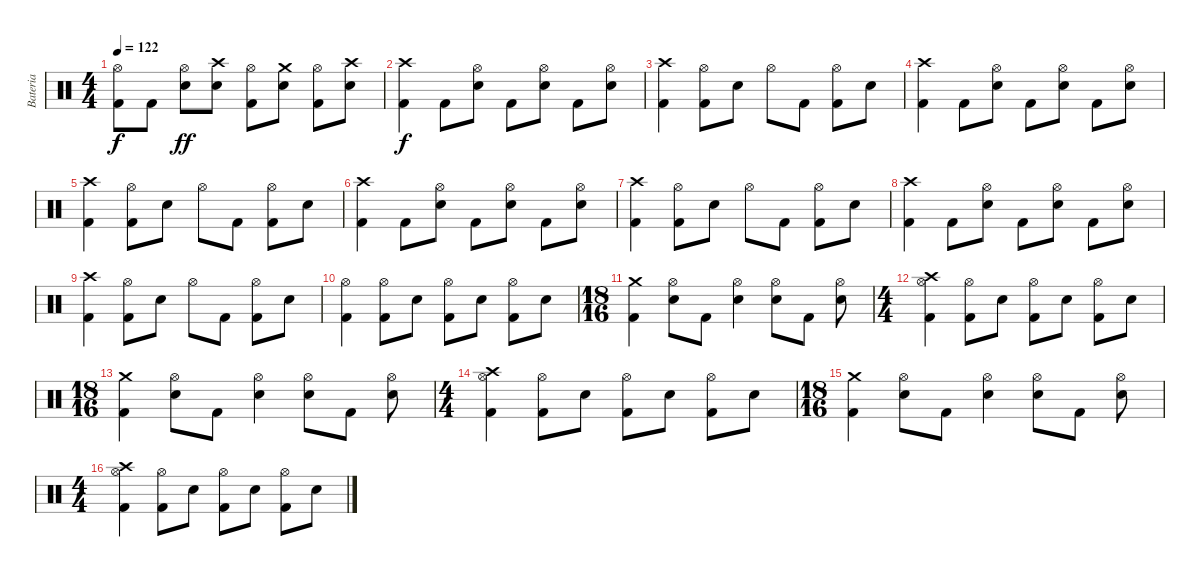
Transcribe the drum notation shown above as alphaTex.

\track ("Bateria" "Bateria") {instrument percussion}
\staff {score}
\articulation defaults
\ts (4 4)
\tempo 122
\clef neutral
\ks c
("Hi-Hat (open)" "Kick (hit) 2").8{dy f} "Kick (hit) 2".8 ("Hi-Hat (open)" "Electric Snare (hit)").8{dy ff} ("Crash high (hit)" "Electric Snare (hit)").8 ("Hi-Hat (open)" "Kick (hit) 2").8 ("Crash medium (hit)" "Electric Snare (hit)").8 ("Hi-Hat (open)" "Kick (hit) 2").8 ("Crash high (hit)" "Electric Snare (hit)").8 |
("Crash high (hit)" "Kick (hit) 2").4{dy f} "Kick (hit) 2".8 ("Hi-Hat (open)" "Electric Snare (hit)").8 "Kick (hit) 2".8 ("Hi-Hat (open)" "Electric Snare (hit)").8 "Kick (hit) 2".8 ("Hi-Hat (open)" "Electric Snare (hit)").8 |
("Crash high (hit)" "Kick (hit) 2").4 ("Hi-Hat (open)" "Kick (hit) 2").8 "Electric Snare (hit)".8 "Hi-Hat (open)".8 "Kick (hit) 2".8 ("Hi-Hat (open)" "Kick (hit) 2").8 "Electric Snare (hit)".8 |
("Crash high (hit)" "Kick (hit) 2").4 "Kick (hit) 2".8 ("Hi-Hat (open)" "Electric Snare (hit)").8 "Kick (hit) 2".8 ("Hi-Hat (open)" "Electric Snare (hit)").8 "Kick (hit) 2".8 ("Hi-Hat (open)" "Electric Snare (hit)").8 |
("Crash high (hit)" "Kick (hit) 2").4 ("Hi-Hat (open)" "Kick (hit) 2").8 "Electric Snare (hit)".8 "Hi-Hat (open)".8 "Kick (hit) 2".8 ("Hi-Hat (open)" "Kick (hit) 2").8 "Electric Snare (hit)".8 |
("Crash high (hit)" "Kick (hit) 2").4 "Kick (hit) 2".8 ("Hi-Hat (open)" "Electric Snare (hit)").8 "Kick (hit) 2".8 ("Hi-Hat (open)" "Electric Snare (hit)").8 "Kick (hit) 2".8 ("Hi-Hat (open)" "Electric Snare (hit)").8 |
("Crash high (hit)" "Kick (hit) 2").4 ("Hi-Hat (open)" "Kick (hit) 2").8 "Electric Snare (hit)".8 "Hi-Hat (open)".8 "Kick (hit) 2".8 ("Hi-Hat (open)" "Kick (hit) 2").8 "Electric Snare (hit)".8 |
("Crash high (hit)" "Kick (hit) 2").4 "Kick (hit) 2".8 ("Hi-Hat (open)" "Electric Snare (hit)").8 "Kick (hit) 2".8 ("Hi-Hat (open)" "Electric Snare (hit)").8 "Kick (hit) 2".8 ("Hi-Hat (open)" "Electric Snare (hit)").8 |
("Crash high (hit)" "Kick (hit) 2").4 ("Hi-Hat (open)" "Kick (hit) 2").8 "Electric Snare (hit)".8 "Hi-Hat (open)".8 "Kick (hit) 2".8 ("Hi-Hat (open)" "Kick (hit) 2").8 "Electric Snare (hit)".8 |
("Hi-Hat (open)" "Kick (hit) 2").4 ("Hi-Hat (open)" "Kick (hit) 2").8 "Electric Snare (hit)".8 ("Hi-Hat (open)" "Kick (hit) 2").8 "Electric Snare (hit)".8 ("Hi-Hat (open)" "Kick (hit) 2").8 "Electric Snare (hit)".8 |
\ts (18 16)
("Crash medium (hit)" "Kick (hit) 2").4 ("Hi-Hat (open)" "Electric Snare (hit)").8 "Kick (hit) 2".8 ("Hi-Hat (open)" "Electric Snare (hit)").4 ("Hi-Hat (open)" "Electric Snare (hit)").8 "Kick (hit) 2".8 ("Hi-Hat (open)" "Electric Snare (hit)").8 |
\ts (4 4)
("Crash high (hit)" "Hi-Hat (open)" "Kick (hit) 2").4 ("Hi-Hat (open)" "Kick (hit) 2").8 "Electric Snare (hit)".8 ("Hi-Hat (open)" "Kick (hit) 2").8 "Electric Snare (hit)".8 ("Hi-Hat (open)" "Kick (hit) 2").8 "Electric Snare (hit)".8 |
\ts (18 16)
("Crash medium (hit)" "Kick (hit) 2").4 ("Hi-Hat (open)" "Electric Snare (hit)").8 "Kick (hit) 2".8 ("Hi-Hat (open)" "Electric Snare (hit)").4 ("Hi-Hat (open)" "Electric Snare (hit)").8 "Kick (hit) 2".8 ("Hi-Hat (open)" "Electric Snare (hit)").8 |
\ts (4 4)
("Crash high (hit)" "Hi-Hat (open)" "Kick (hit) 2").4 ("Hi-Hat (open)" "Kick (hit) 2").8 "Electric Snare (hit)".8 ("Hi-Hat (open)" "Kick (hit) 2").8 "Electric Snare (hit)".8 ("Hi-Hat (open)" "Kick (hit) 2").8 "Electric Snare (hit)".8 |
\ts (18 16)
("Crash medium (hit)" "Kick (hit) 2").4 ("Hi-Hat (open)" "Electric Snare (hit)").8 "Kick (hit) 2".8 ("Hi-Hat (open)" "Electric Snare (hit)").4 ("Hi-Hat (open)" "Electric Snare (hit)").8 "Kick (hit) 2".8 ("Hi-Hat (open)" "Electric Snare (hit)").8 |
\ts (4 4)
("Crash high (hit)" "Hi-Hat (open)" "Kick (hit) 2").4 ("Hi-Hat (open)" "Kick (hit) 2").8 "Electric Snare (hit)".8 ("Hi-Hat (open)" "Kick (hit) 2").8 "Electric Snare (hit)".8 ("Hi-Hat (open)" "Kick (hit) 2").8 "Electric Snare (hit)".8
